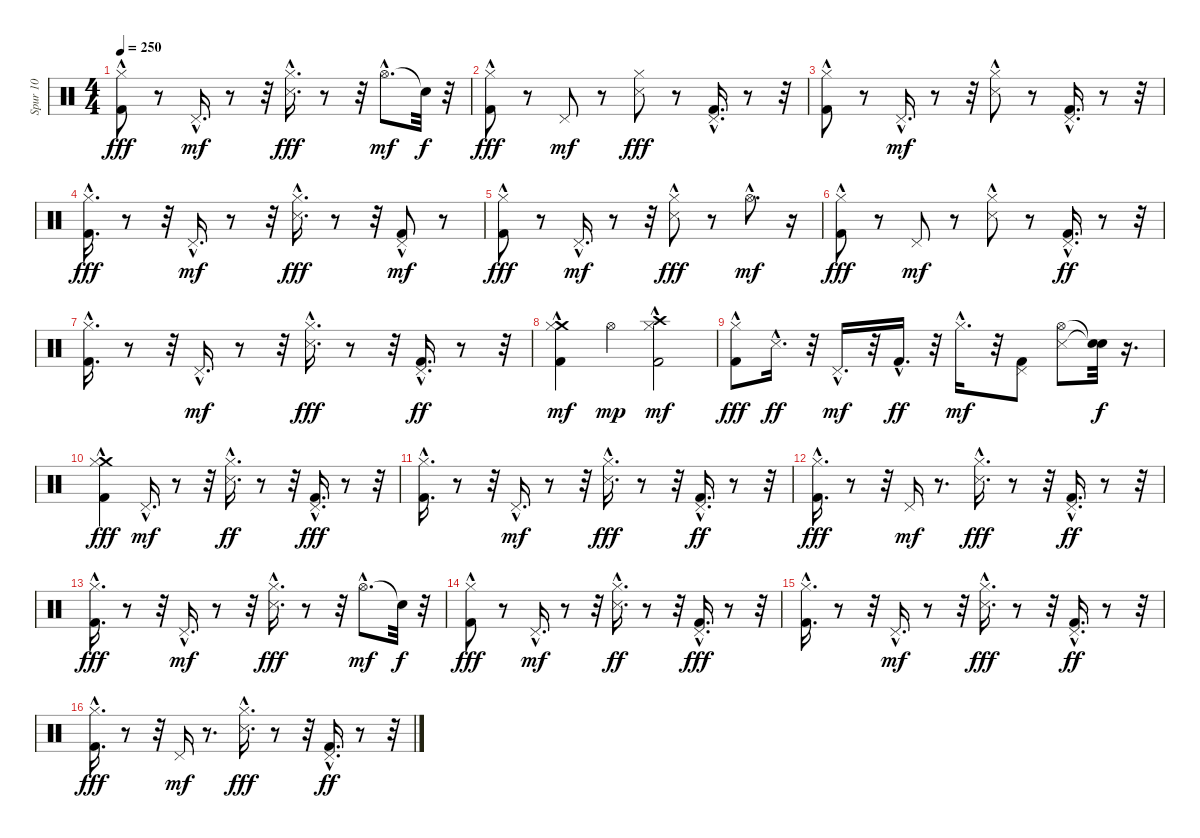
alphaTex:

\track ("Spur 10" "Spur 10") {instrument percussion}
\staff {score}
\articulation defaults
\ts (4 4)
\tempo 250
\clef neutral
\ks c
("Hi-Hat (closed)" "Kick (hit) 2"{hac}).8{dy fff} r.8 "Pedal Hi-Hat (hit)"{hac}.16{d dy mf} r.8 r.32 ("Snare (side stick) 3"{hac} "Hi-Hat (closed)"{hac}).16{d dy fff} r.8 r.32 "Hi-Hat (open)"{hac}.8{d dy mf} "Snare (hit)"{t}.32{dy f} r.32 |
("Kick (hit) 2"{hac} "Hi-Hat (closed)").8{dy fff} r.8 "Pedal Hi-Hat (hit)".8{dy mf} r.8 ("Snare (side stick) 3" "Hi-Hat (closed)").8{dy fff} r.8 ("Pedal Hi-Hat (hit)"{hac} "Kick (hit) 2"{hac}).16{d} r.8 r.32 |
("Hi-Hat (closed)" "Kick (hit) 2"{hac}).8 r.8 "Pedal Hi-Hat (hit)"{hac}.16{d dy mf} r.8 r.32 ("Snare (side stick) 3"{hac} "Hi-Hat (closed)").8 r.8 ("Kick (hit) 2"{hac} "Pedal Hi-Hat (hit)"{hac}).16{d} r.8 r.32 |
("Hi-Hat (closed)"{hac} "Kick (hit) 2"{hac}).16{d dy fff} r.8 r.32 "Pedal Hi-Hat (hit)"{hac}.16{d dy mf} r.8 r.32 ("Hi-Hat (closed)"{hac} "Snare (side stick) 3"{hac}).16{d dy fff} r.8 r.32 ("Pedal Hi-Hat (hit)"{hac} "Kick (hit) 2").8{dy mf} r.8 |
("Hi-Hat (closed)" "Kick (hit) 2"{hac}).8{dy fff} r.8 "Pedal Hi-Hat (hit)"{hac}.16{d dy mf} r.8 r.32 ("Hi-Hat (closed)" "Snare (side stick) 3"{hac}).8{dy fff} r.8 "Hi-Hat (open)"{hac}.8{d dy mf} r.16 |
("Hi-Hat (closed)" "Kick (hit) 2"{hac}).8{dy fff} r.8 "Pedal Hi-Hat (hit)".8{dy mf} r.8 ("Snare (side stick) 3"{hac} "Hi-Hat (closed)").8 r.8 ("Pedal Hi-Hat (hit)"{hac} "Kick (hit) 2"{hac}).16{d dy ff} r.8 r.32 |
("Hi-Hat (closed)"{hac} "Kick (hit) 2"{hac}).16{d} r.8 r.32 "Pedal Hi-Hat (hit)"{hac}.16{d dy mf} r.8 r.32 ("Hi-Hat (closed)"{hac} "Snare (side stick) 3"{hac}).16{d dy fff} r.8 r.32 ("Pedal Hi-Hat (hit)"{hac} "Kick (hit) 2"{hac}).16{d dy ff} r.8 r.32 |
("Crash medium (hit)" "Kick (hit) 2" "Hi-Hat (closed)"{hac}).4{dy mf} "Hi-Hat (open)".4{dy mp} ("Crash high (hit)" "Kick (hit) 2" "Hi-Hat (closed)"{hac}).2{dy mf} |
("Hi-Hat (closed)"{hac} "Kick (hit) 2").8{dy fff} "Snare (side stick) 3"{hac}.16{d dy ff} r.32 "Pedal Hi-Hat (hit)"{hac}.16{d dy mf} r.32 "Kick (hit) 2"{hac}.16{d dy ff} r.32 "Hi-Hat (closed)"{hac}.16{d dy mf} r.32 ("Kick (hit) 2" "Pedal Hi-Hat (hit)").8 ("Snare (side stick) 3" "Hi-Hat (open)").8 ("Snare (hit)"{t} "Snare (hit)"{t}).32{dy f} r.16{d} |
("Crash medium (hit)"{hac} "Hi-Hat (closed)"{hac} "Kick (hit) 2").4{dy fff} "Pedal Hi-Hat (hit)"{hac}.16{d dy mf} r.8 r.32 ("Hi-Hat (closed)"{hac} "Snare (side stick) 3"{hac}).16{d dy ff} r.8 r.32 ("Pedal Hi-Hat (hit)"{hac} "Kick (hit) 2"{hac}).16{d dy fff} r.8 r.32 |
("Hi-Hat (closed)"{hac} "Kick (hit) 2"{hac}).16{d} r.8 r.32 "Pedal Hi-Hat (hit)"{hac}.16{d dy mf} r.8 r.32 ("Hi-Hat (closed)"{hac} "Snare (side stick) 3"{hac}).16{d dy fff} r.8 r.32 ("Pedal Hi-Hat (hit)"{hac} "Kick (hit) 2"{hac}).16{d dy ff} r.8 r.32 |
("Hi-Hat (closed)"{hac} "Kick (hit) 2"{hac}).16{d dy fff} r.8 r.32 "Pedal Hi-Hat (hit)".16{dy mf} r.8{d} ("Hi-Hat (closed)"{hac} "Snare (side stick) 3"{hac}).16{d dy fff} r.8 r.32 ("Pedal Hi-Hat (hit)"{hac} "Kick (hit) 2"{hac}).16{d dy ff} r.8 r.32 |
("Hi-Hat (closed)"{hac} "Kick (hit) 2"{hac}).16{d dy fff} r.8 r.32 "Pedal Hi-Hat (hit)"{hac}.16{d dy mf} r.8 r.32 ("Hi-Hat (closed)"{hac} "Snare (side stick) 3"{hac}).16{d dy fff} r.8 r.32 "Hi-Hat (open)"{hac}.8{d dy mf} "Snare (hit)"{t}.32{dy f} r.32 |
("Hi-Hat (closed)"{hac} "Kick (hit) 2").8{dy fff} r.8 "Pedal Hi-Hat (hit)"{hac}.16{d dy mf} r.8 r.32 ("Hi-Hat (closed)"{hac} "Snare (side stick) 3"{hac}).16{d dy ff} r.8 r.32 ("Pedal Hi-Hat (hit)"{hac} "Kick (hit) 2"{hac}).16{d dy fff} r.8 r.32 |
("Hi-Hat (closed)"{hac} "Kick (hit) 2"{hac}).16{d} r.8 r.32 "Pedal Hi-Hat (hit)"{hac}.16{d dy mf} r.8 r.32 ("Hi-Hat (closed)"{hac} "Snare (side stick) 3"{hac}).16{d dy fff} r.8 r.32 ("Pedal Hi-Hat (hit)"{hac} "Kick (hit) 2"{hac}).16{d dy ff} r.8 r.32 |
("Hi-Hat (closed)"{hac} "Kick (hit) 2"{hac}).16{d dy fff} r.8 r.32 "Pedal Hi-Hat (hit)".16{dy mf} r.8{d} ("Hi-Hat (closed)"{hac} "Snare (side stick) 3"{hac}).16{d dy fff} r.8 r.32 ("Pedal Hi-Hat (hit)"{hac} "Kick (hit) 2"{hac}).16{d dy ff} r.8 r.32
